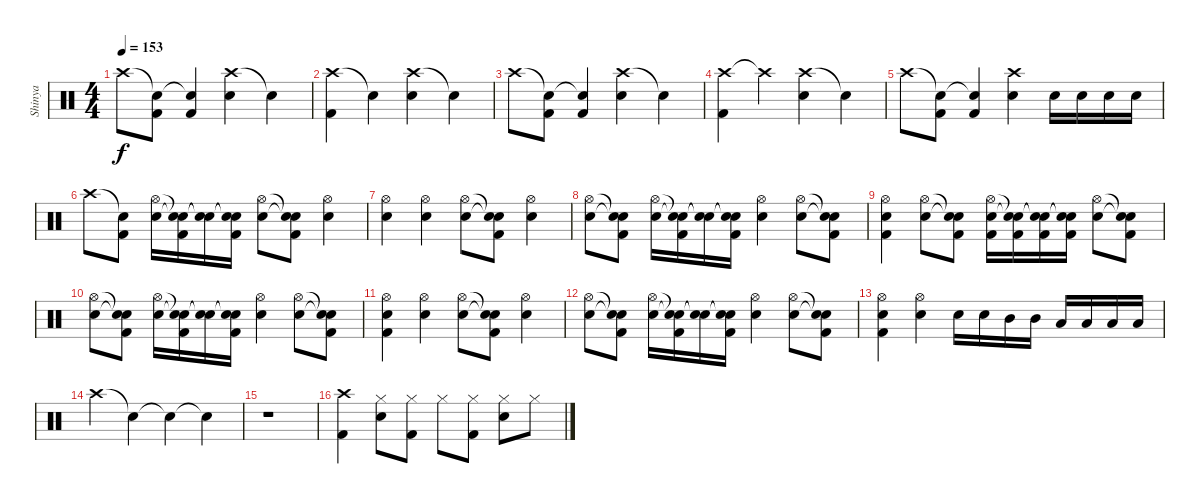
\track ("Shinya" "Shinya") {instrument percussion}
\staff {score}
\articulation defaults
\ts (4 4)
\tempo 153
\clef neutral
\ks c "Crash high (hit)".8{dy f}
("Snare (hit)"{t} "Kick (hit) 2").8 ("Snare (hit)"{t} "Kick (hit) 2").4 ("Crash high (hit)" "Electric Snare (hit)").4 "Snare (hit)"{t}.4 |
("Crash high (hit)" "Kick (hit) 2").4 "Snare (hit)"{t}.4 ("Crash high (hit)" "Electric Snare (hit)").4 "Snare (hit)"{t}.4 |
"Crash high (hit)".8 ("Snare (hit)"{t} "Kick (hit) 2").8 ("Snare (hit)"{t} "Kick (hit) 2").4 ("Crash high (hit)" "Electric Snare (hit)").4 "Snare (hit)"{t}.4 |
("Crash high (hit)" "Kick (hit) 2").4 "Crash high (hit)"{t}.4 ("Crash high (hit)" "Electric Snare (hit)").4 "Snare (hit)"{t}.4 |
"Crash high (hit)".8 ("Snare (hit)"{t} "Kick (hit) 2").8 ("Snare (hit)"{t} "Kick (hit) 2").4 ("Crash high (hit)" "Electric Snare (hit)").4 "Electric Snare (hit)".16 "Electric Snare (hit)".16 "Electric Snare (hit)".16 "Electric Snare (hit)".16 |
"Crash high (hit)".8 ("Snare (hit)"{t} "Kick (hit) 2").8 ("Hi-Hat (open)" "Electric Snare (hit)").16 ("Snare (hit)"{t} "Snare (hit)"{t} "Kick (hit) 2").16 ("Snare (hit)"{t} "Snare (hit)"{t}).16 ("Snare (hit)"{t} "Snare (hit)"{t} "Kick (hit) 2").16 ("Hi-Hat (open)" "Electric Snare (hit)").8 ("Snare (hit)"{t} "Snare (hit)"{t} "Kick (hit) 2").8 ("Hi-Hat (open)" "Electric Snare (hit)").4 |
("Hi-Hat (open)" "Electric Snare (hit)").4 ("Hi-Hat (open)" "Electric Snare (hit)").4 ("Hi-Hat (open)" "Electric Snare (hit)").8 ("Snare (hit)"{t} "Snare (hit)"{t} "Kick (hit) 2").8 ("Hi-Hat (open)" "Electric Snare (hit)").4 |
("Hi-Hat (open)" "Electric Snare (hit)").8 ("Snare (hit)"{t} "Snare (hit)"{t} "Kick (hit) 2").8 ("Hi-Hat (open)" "Electric Snare (hit)").16 ("Snare (hit)"{t} "Snare (hit)"{t} "Kick (hit) 2").16 ("Snare (hit)"{t} "Snare (hit)"{t}).16 ("Snare (hit)"{t} "Snare (hit)"{t} "Kick (hit) 2").16 ("Hi-Hat (open)" "Electric Snare (hit)").4 ("Hi-Hat (open)" "Electric Snare (hit)").8 ("Snare (hit)"{t} "Snare (hit)"{t} "Kick (hit) 2").8 |
("Hi-Hat (open)" "Electric Snare (hit)" "Kick (hit) 2").4 ("Hi-Hat (open)" "Electric Snare (hit)").8 ("Snare (hit)"{t} "Snare (hit)"{t} "Kick (hit) 2").8 ("Hi-Hat (open)" "Electric Snare (hit)" "Kick (hit) 2").16 ("Snare (hit)"{t} "Snare (hit)"{t} "Kick (hit) 2").16 ("Snare (hit)"{t} "Snare (hit)"{t} "Kick (hit) 2").16 ("Snare (hit)"{t} "Snare (hit)"{t} "Kick (hit) 2").16 ("Hi-Hat (open)" "Electric Snare (hit)").8 ("Snare (hit)"{t} "Snare (hit)"{t} "Kick (hit) 2").8 |
("Hi-Hat (open)" "Electric Snare (hit)").8 ("Snare (hit)"{t} "Snare (hit)"{t} "Kick (hit) 2").8 ("Hi-Hat (open)" "Electric Snare (hit)").16 ("Snare (hit)"{t} "Snare (hit)"{t} "Kick (hit) 2").16 ("Snare (hit)"{t} "Snare (hit)"{t}).16 ("Snare (hit)"{t} "Snare (hit)"{t} "Kick (hit) 2").16 ("Hi-Hat (open)" "Electric Snare (hit)").4 ("Hi-Hat (open)" "Electric Snare (hit)").8 ("Snare (hit)"{t} "Snare (hit)"{t} "Kick (hit) 2").8 |
("Hi-Hat (open)" "Electric Snare (hit)" "Kick (hit) 2").4 ("Hi-Hat (open)" "Electric Snare (hit)").4 ("Hi-Hat (open)" "Electric Snare (hit)").8 ("Snare (hit)"{t} "Snare (hit)"{t} "Kick (hit) 2").8 ("Hi-Hat (open)" "Electric Snare (hit)").4 |
("Hi-Hat (open)" "Electric Snare (hit)").8 ("Snare (hit)"{t} "Snare (hit)"{t} "Kick (hit) 2").8 ("Hi-Hat (open)" "Electric Snare (hit)").16 ("Snare (hit)"{t} "Snare (hit)"{t} "Kick (hit) 2").16 ("Snare (hit)"{t} "Snare (hit)"{t}).16 ("Snare (hit)"{t} "Snare (hit)"{t} "Kick (hit) 2").16 ("Hi-Hat (open)" "Electric Snare (hit)").4 ("Hi-Hat (open)" "Electric Snare (hit)").8 ("Snare (hit)"{t} "Snare (hit)"{t} "Kick (hit) 2").8 |
("Hi-Hat (open)" "Electric Snare (hit)" "Kick (hit) 2").4 ("Hi-Hat (open)" "Electric Snare (hit)").4 "Electric Snare (hit)".16 "Electric Snare (hit)".16 "Mid Tom (hit)".16 "Mid Tom (hit)".16 "Low Tom (hit)".16 "Low Tom (hit)".16 "Low Floor Tom (hit)".16 "Low Floor Tom (hit)".16 |
"Crash high (hit)".4 "Snare (hit)"{t}.4 "Snare (hit)"{t}.4 "Snare (hit)"{t}.4 |
r.1 |
("Crash high (hit)" "Kick (hit) 2").4 ("Hi-Hat (closed)" "Electric Snare (hit)").8 ("Hi-Hat (closed)" "Kick (hit) 2").8 "Hi-Hat (closed)".8 ("Hi-Hat (closed)" "Kick (hit) 2").8 ("Hi-Hat (closed)" "Electric Snare (hit)").8 "Hi-Hat (closed)".8
